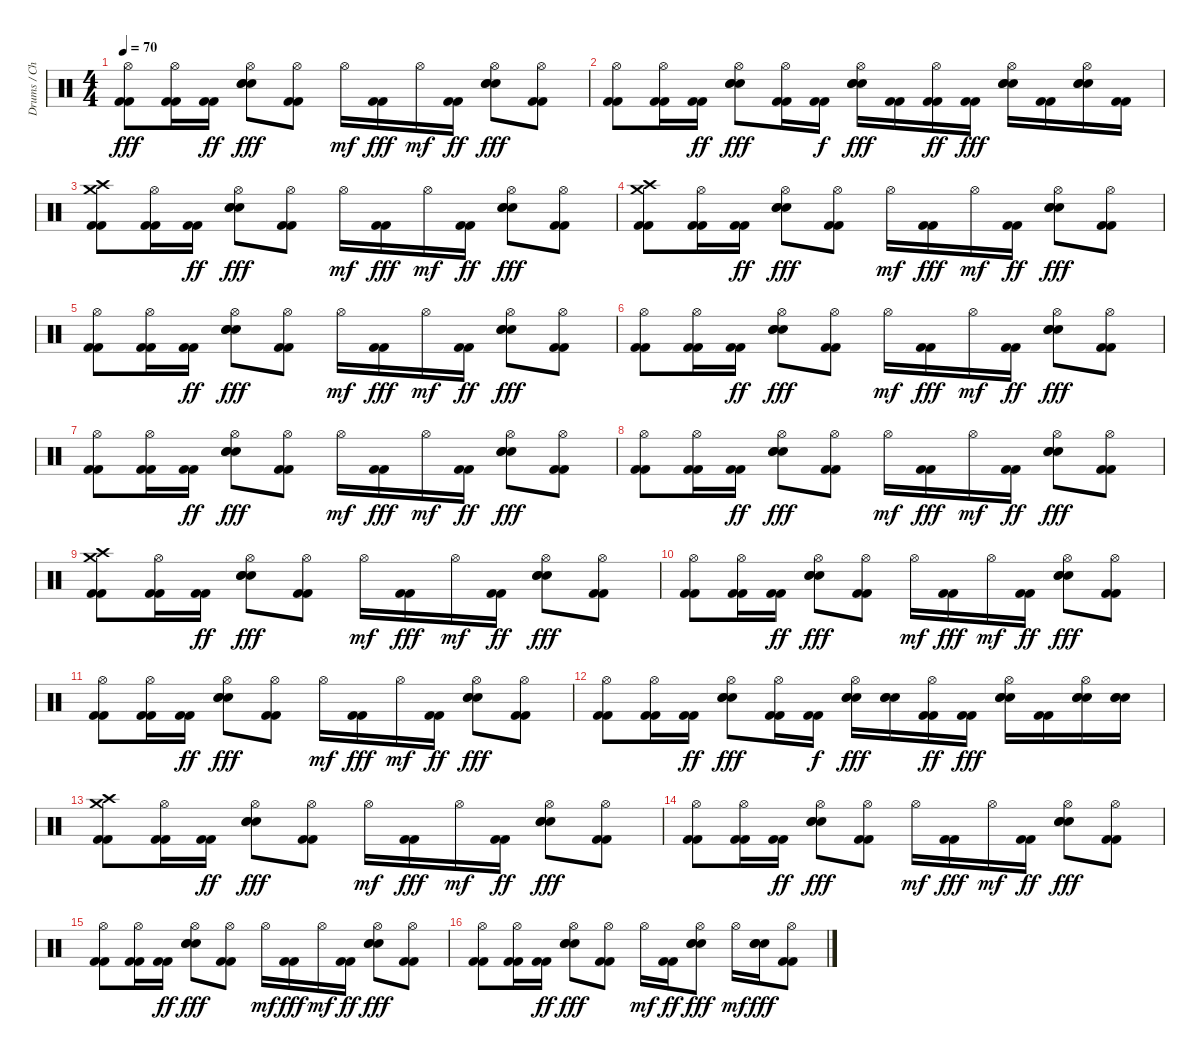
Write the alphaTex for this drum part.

\track ("Drums / Christoph Schneider" "Drums / Ch") {instrument percussion}
\staff {score}
\articulation defaults
\ts (4 4)
\tempo 70
\clef neutral
\ks c
("Hi-Hat (open)" "Kick (hit) 2" "Kick (hit) 2").8{dy fff} ("Hi-Hat (open)" "Kick (hit) 2" "Kick (hit) 2").16 ("Kick (hit) 2" "Kick (hit) 2").16{dy ff} ("Hi-Hat (open)" "Snare (hit) 2" "Snare (hit) 2" "Snare (hit) 2").8{dy fff} ("Hi-Hat (open)" "Kick (hit) 2" "Kick (hit) 2").8 "Hi-Hat (open)".16{dy mf} ("Kick (hit) 2" "Kick (hit) 2").16{dy fff} "Hi-Hat (open)".16{dy mf} ("Kick (hit) 2" "Kick (hit) 2").16{dy ff} ("Hi-Hat (open)" "Snare (hit) 2" "Snare (hit) 2" "Snare (hit) 2").8{dy fff} ("Hi-Hat (open)" "Kick (hit) 2" "Kick (hit) 2").8 |
("Hi-Hat (open)" "Kick (hit) 2" "Kick (hit) 2").8 ("Hi-Hat (open)" "Kick (hit) 2" "Kick (hit) 2").16 ("Kick (hit) 2" "Kick (hit) 2").16{dy ff} ("Hi-Hat (open)" "Snare (hit) 2" "Snare (hit) 2" "Snare (hit) 2").8{dy fff} ("Hi-Hat (open)" "Kick (hit) 2" "Kick (hit) 2").16 ("Kick (hit) 2" "Kick (hit) 2").16{dy f} ("Hi-Hat (open)" "Snare (hit) 2" "Snare (hit) 2" "Snare (hit) 2").16{dy fff} ("Kick (hit) 2" "Kick (hit) 2").16 ("Hi-Hat (open)" "Kick (hit) 2" "Kick (hit) 2").16{dy ff} ("Kick (hit) 2" "Kick (hit) 2").16{dy fff} ("Hi-Hat (open)" "Snare (hit) 2" "Snare (hit) 2" "Snare (hit) 2").16 ("Kick (hit) 2" "Kick (hit) 2").16 ("Hi-Hat (open)" "Snare (hit) 2" "Snare (hit) 2" "Snare (hit) 2").16 ("Kick (hit) 2" "Kick (hit) 2").16 |
("Crash medium (hit)" "Crash high (hit)" "Kick (hit) 2" "Kick (hit) 2").8 ("Hi-Hat (open)" "Kick (hit) 2" "Kick (hit) 2").16 ("Kick (hit) 2" "Kick (hit) 2").16{dy ff} ("Hi-Hat (open)" "Snare (hit) 2" "Snare (hit) 2" "Snare (hit) 2").8{dy fff} ("Hi-Hat (open)" "Kick (hit) 2" "Kick (hit) 2").8 "Hi-Hat (open)".16{dy mf} ("Kick (hit) 2" "Kick (hit) 2").16{dy fff} "Hi-Hat (open)".16{dy mf} ("Kick (hit) 2" "Kick (hit) 2").16{dy ff} ("Hi-Hat (open)" "Snare (hit) 2" "Snare (hit) 2" "Snare (hit) 2").8{dy fff} ("Hi-Hat (open)" "Kick (hit) 2" "Kick (hit) 2").8 |
("Crash medium (hit)" "Crash high (hit)" "Kick (hit) 2" "Kick (hit) 2").8 ("Hi-Hat (open)" "Kick (hit) 2" "Kick (hit) 2").16 ("Kick (hit) 2" "Kick (hit) 2").16{dy ff} ("Hi-Hat (open)" "Snare (hit) 2" "Snare (hit) 2" "Snare (hit) 2").8{dy fff} ("Hi-Hat (open)" "Kick (hit) 2" "Kick (hit) 2").8 "Hi-Hat (open)".16{dy mf} ("Kick (hit) 2" "Kick (hit) 2").16{dy fff} "Hi-Hat (open)".16{dy mf} ("Kick (hit) 2" "Kick (hit) 2").16{dy ff} ("Hi-Hat (open)" "Snare (hit) 2" "Snare (hit) 2" "Snare (hit) 2").8{dy fff} ("Hi-Hat (open)" "Kick (hit) 2" "Kick (hit) 2").8 |
("Hi-Hat (open)" "Kick (hit) 2" "Kick (hit) 2").8 ("Hi-Hat (open)" "Kick (hit) 2" "Kick (hit) 2").16 ("Kick (hit) 2" "Kick (hit) 2").16{dy ff} ("Hi-Hat (open)" "Snare (hit) 2" "Snare (hit) 2" "Snare (hit) 2").8{dy fff} ("Hi-Hat (open)" "Kick (hit) 2" "Kick (hit) 2").8 "Hi-Hat (open)".16{dy mf} ("Kick (hit) 2" "Kick (hit) 2").16{dy fff} "Hi-Hat (open)".16{dy mf} ("Kick (hit) 2" "Kick (hit) 2").16{dy ff} ("Hi-Hat (open)" "Snare (hit) 2" "Snare (hit) 2" "Snare (hit) 2").8{dy fff} ("Hi-Hat (open)" "Kick (hit) 2" "Kick (hit) 2").8 |
("Hi-Hat (open)" "Kick (hit) 2" "Kick (hit) 2").8 ("Hi-Hat (open)" "Kick (hit) 2" "Kick (hit) 2").16 ("Kick (hit) 2" "Kick (hit) 2").16{dy ff} ("Hi-Hat (open)" "Snare (hit) 2" "Snare (hit) 2" "Snare (hit) 2").8{dy fff} ("Hi-Hat (open)" "Kick (hit) 2" "Kick (hit) 2").8 "Hi-Hat (open)".16{dy mf} ("Kick (hit) 2" "Kick (hit) 2").16{dy fff} "Hi-Hat (open)".16{dy mf} ("Kick (hit) 2" "Kick (hit) 2").16{dy ff} ("Hi-Hat (open)" "Snare (hit) 2" "Snare (hit) 2" "Snare (hit) 2").8{dy fff} ("Hi-Hat (open)" "Kick (hit) 2" "Kick (hit) 2").8 |
("Hi-Hat (open)" "Kick (hit) 2" "Kick (hit) 2").8 ("Hi-Hat (open)" "Kick (hit) 2" "Kick (hit) 2").16 ("Kick (hit) 2" "Kick (hit) 2").16{dy ff} ("Hi-Hat (open)" "Snare (hit) 2" "Snare (hit) 2" "Snare (hit) 2").8{dy fff} ("Hi-Hat (open)" "Kick (hit) 2" "Kick (hit) 2").8 "Hi-Hat (open)".16{dy mf} ("Kick (hit) 2" "Kick (hit) 2").16{dy fff} "Hi-Hat (open)".16{dy mf} ("Kick (hit) 2" "Kick (hit) 2").16{dy ff} ("Hi-Hat (open)" "Snare (hit) 2" "Snare (hit) 2" "Snare (hit) 2").8{dy fff} ("Hi-Hat (open)" "Kick (hit) 2" "Kick (hit) 2").8 |
("Hi-Hat (open)" "Kick (hit) 2" "Kick (hit) 2").8 ("Hi-Hat (open)" "Kick (hit) 2" "Kick (hit) 2").16 ("Kick (hit) 2" "Kick (hit) 2").16{dy ff} ("Hi-Hat (open)" "Snare (hit) 2" "Snare (hit) 2" "Snare (hit) 2").8{dy fff} ("Hi-Hat (open)" "Kick (hit) 2" "Kick (hit) 2").8 "Hi-Hat (open)".16{dy mf} ("Kick (hit) 2" "Kick (hit) 2").16{dy fff} "Hi-Hat (open)".16{dy mf} ("Kick (hit) 2" "Kick (hit) 2").16{dy ff} ("Hi-Hat (open)" "Snare (hit) 2" "Snare (hit) 2" "Snare (hit) 2").8{dy fff} ("Hi-Hat (open)" "Kick (hit) 2" "Kick (hit) 2").8 |
("Crash medium (hit)" "Crash high (hit)" "Kick (hit) 2" "Kick (hit) 2").8 ("Hi-Hat (open)" "Kick (hit) 2" "Kick (hit) 2").16 ("Kick (hit) 2" "Kick (hit) 2").16{dy ff} ("Hi-Hat (open)" "Snare (hit) 2" "Snare (hit) 2" "Snare (hit) 2").8{dy fff} ("Hi-Hat (open)" "Kick (hit) 2" "Kick (hit) 2").8 "Hi-Hat (open)".16{dy mf} ("Kick (hit) 2" "Kick (hit) 2").16{dy fff} "Hi-Hat (open)".16{dy mf} ("Kick (hit) 2" "Kick (hit) 2").16{dy ff} ("Hi-Hat (open)" "Snare (hit) 2" "Snare (hit) 2" "Snare (hit) 2").8{dy fff} ("Hi-Hat (open)" "Kick (hit) 2" "Kick (hit) 2").8 |
("Hi-Hat (open)" "Kick (hit) 2" "Kick (hit) 2").8 ("Hi-Hat (open)" "Kick (hit) 2" "Kick (hit) 2").16 ("Kick (hit) 2" "Kick (hit) 2").16{dy ff} ("Hi-Hat (open)" "Snare (hit) 2" "Snare (hit) 2" "Snare (hit) 2").8{dy fff} ("Hi-Hat (open)" "Kick (hit) 2" "Kick (hit) 2").8 "Hi-Hat (open)".16{dy mf} ("Kick (hit) 2" "Kick (hit) 2").16{dy fff} "Hi-Hat (open)".16{dy mf} ("Kick (hit) 2" "Kick (hit) 2").16{dy ff} ("Hi-Hat (open)" "Snare (hit) 2" "Snare (hit) 2" "Snare (hit) 2").8{dy fff} ("Hi-Hat (open)" "Kick (hit) 2" "Kick (hit) 2").8 |
("Hi-Hat (open)" "Kick (hit) 2" "Kick (hit) 2").8 ("Hi-Hat (open)" "Kick (hit) 2" "Kick (hit) 2").16 ("Kick (hit) 2" "Kick (hit) 2").16{dy ff} ("Hi-Hat (open)" "Snare (hit) 2" "Snare (hit) 2" "Snare (hit) 2").8{dy fff} ("Hi-Hat (open)" "Kick (hit) 2" "Kick (hit) 2").8 "Hi-Hat (open)".16{dy mf} ("Kick (hit) 2" "Kick (hit) 2").16{dy fff} "Hi-Hat (open)".16{dy mf} ("Kick (hit) 2" "Kick (hit) 2").16{dy ff} ("Hi-Hat (open)" "Snare (hit) 2" "Snare (hit) 2" "Snare (hit) 2").8{dy fff} ("Hi-Hat (open)" "Kick (hit) 2" "Kick (hit) 2").8 |
("Hi-Hat (open)" "Kick (hit) 2" "Kick (hit) 2").8 ("Hi-Hat (open)" "Kick (hit) 2" "Kick (hit) 2").16 ("Kick (hit) 2" "Kick (hit) 2").16{dy ff} ("Hi-Hat (open)" "Snare (hit) 2" "Snare (hit) 2" "Snare (hit) 2").8{dy fff} ("Hi-Hat (open)" "Kick (hit) 2" "Kick (hit) 2").16 ("Kick (hit) 2" "Kick (hit) 2").16{dy f} ("Hi-Hat (open)" "Snare (hit) 2" "Snare (hit) 2" "Snare (hit) 2").16{dy fff} ("Snare (hit) 2" "Snare (hit) 2" "Snare (hit) 2").16 ("Hi-Hat (open)" "Kick (hit) 2" "Kick (hit) 2").16{dy ff} ("Kick (hit) 2" "Kick (hit) 2").16{dy fff} ("Hi-Hat (open)" "Snare (hit) 2" "Snare (hit) 2" "Snare (hit) 2").16 ("Kick (hit) 2" "Kick (hit) 2").16 ("Hi-Hat (open)" "Snare (hit) 2" "Snare (hit) 2" "Snare (hit) 2").16 ("Snare (hit) 2" "Snare (hit) 2" "Snare (hit) 2").16 |
("Crash medium (hit)" "Crash high (hit)" "Kick (hit) 2" "Kick (hit) 2").8 ("Hi-Hat (open)" "Kick (hit) 2" "Kick (hit) 2").16 ("Kick (hit) 2" "Kick (hit) 2").16{dy ff} ("Hi-Hat (open)" "Snare (hit) 2" "Snare (hit) 2" "Snare (hit) 2").8{dy fff} ("Hi-Hat (open)" "Kick (hit) 2" "Kick (hit) 2").8 "Hi-Hat (open)".16{dy mf} ("Kick (hit) 2" "Kick (hit) 2").16{dy fff} "Hi-Hat (open)".16{dy mf} ("Kick (hit) 2" "Kick (hit) 2").16{dy ff} ("Hi-Hat (open)" "Snare (hit) 2" "Snare (hit) 2" "Snare (hit) 2").8{dy fff} ("Hi-Hat (open)" "Kick (hit) 2" "Kick (hit) 2").8 |
("Hi-Hat (open)" "Kick (hit) 2" "Kick (hit) 2").8 ("Hi-Hat (open)" "Kick (hit) 2" "Kick (hit) 2").16 ("Kick (hit) 2" "Kick (hit) 2").16{dy ff} ("Hi-Hat (open)" "Snare (hit) 2" "Snare (hit) 2" "Snare (hit) 2").8{dy fff} ("Hi-Hat (open)" "Kick (hit) 2" "Kick (hit) 2").8 "Hi-Hat (open)".16{dy mf} ("Kick (hit) 2" "Kick (hit) 2").16{dy fff} "Hi-Hat (open)".16{dy mf} ("Kick (hit) 2" "Kick (hit) 2").16{dy ff} ("Hi-Hat (open)" "Snare (hit) 2" "Snare (hit) 2" "Snare (hit) 2").8{dy fff} ("Hi-Hat (open)" "Kick (hit) 2" "Kick (hit) 2").8 |
("Hi-Hat (open)" "Kick (hit) 2" "Kick (hit) 2").8 ("Hi-Hat (open)" "Kick (hit) 2" "Kick (hit) 2").16 ("Kick (hit) 2" "Kick (hit) 2").16{dy ff} ("Hi-Hat (open)" "Snare (hit) 2" "Snare (hit) 2" "Snare (hit) 2").8{dy fff} ("Hi-Hat (open)" "Kick (hit) 2" "Kick (hit) 2").8 "Hi-Hat (open)".16{dy mf} ("Kick (hit) 2" "Kick (hit) 2").16{dy fff} "Hi-Hat (open)".16{dy mf} ("Kick (hit) 2" "Kick (hit) 2").16{dy ff} ("Hi-Hat (open)" "Snare (hit) 2" "Snare (hit) 2" "Snare (hit) 2").8{dy fff} ("Hi-Hat (open)" "Kick (hit) 2" "Kick (hit) 2").8 |
("Hi-Hat (open)" "Kick (hit) 2" "Kick (hit) 2").8 ("Hi-Hat (open)" "Kick (hit) 2" "Kick (hit) 2").16 ("Kick (hit) 2" "Kick (hit) 2").16{dy ff} ("Hi-Hat (open)" "Snare (hit) 2" "Snare (hit) 2" "Snare (hit) 2").8{dy fff} ("Hi-Hat (open)" "Kick (hit) 2" "Kick (hit) 2").8 "Hi-Hat (open)".16{dy mf} ("Kick (hit) 2" "Kick (hit) 2").16{dy ff} ("Hi-Hat (open)" "Snare (hit) 2" "Snare (hit) 2" "Snare (hit) 2").8{dy fff} "Hi-Hat (open)".16{dy mf} ("Snare (hit) 2" "Snare (hit) 2" "Snare (hit) 2").16{dy fff} ("Hi-Hat (open)" "Kick (hit) 2" "Kick (hit) 2").8
